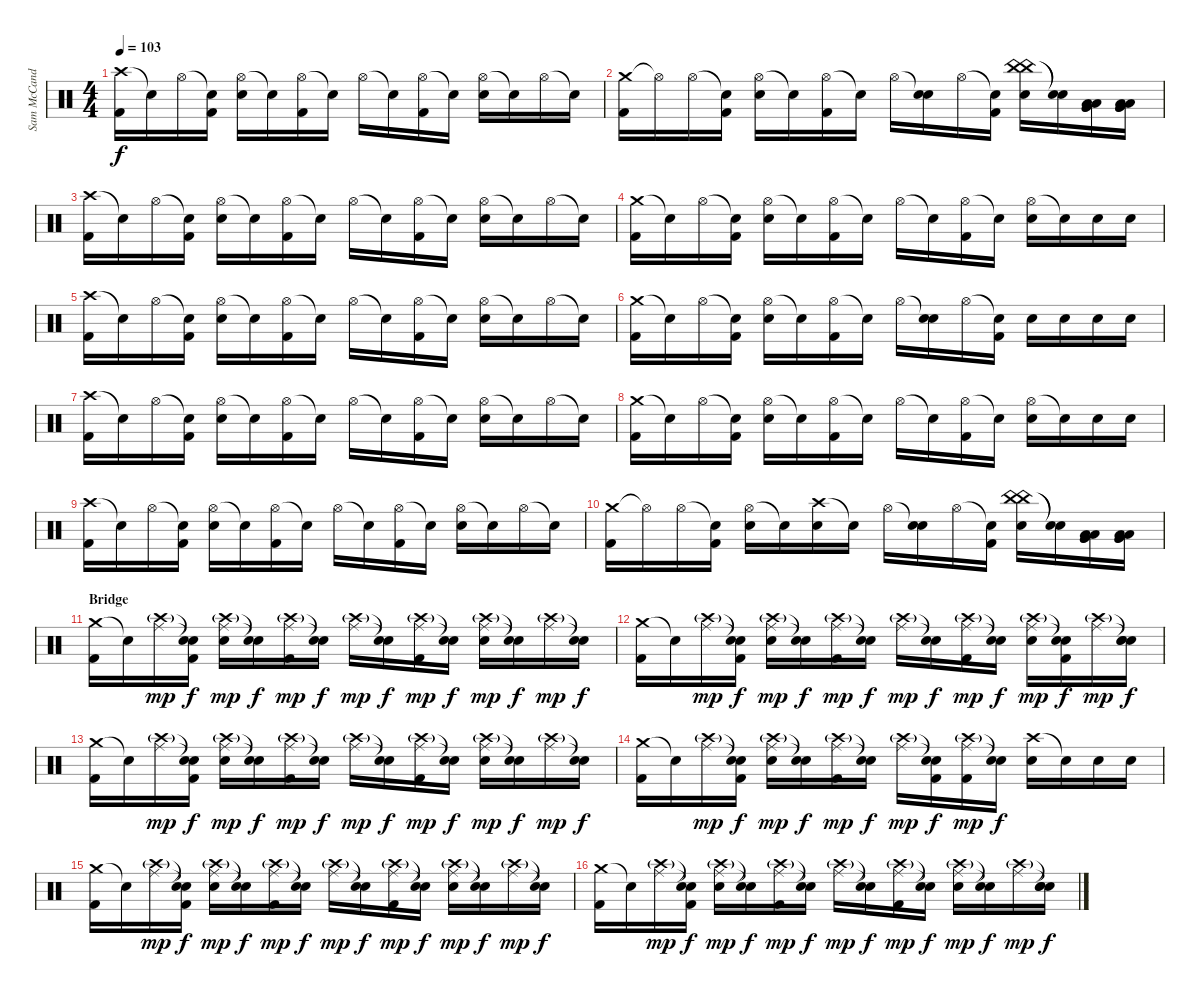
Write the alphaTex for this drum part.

\track ("Sam McCandless (Drums)" "Sam McCand") {instrument percussion}
\staff {score}
\articulation defaults
\ts (4 4)
\tempo 103
\clef neutral
\ks c
("Crash high (hit)" "Kick (hit) 2").16{dy f} "Snare (hit)"{t}.16 "Hi-Hat (open)".16 ("Snare (hit)"{t} "Kick (hit) 2").16 ("Hi-Hat (open)" "Electric Snare (hit)").16 "Snare (hit)"{t}.16 ("Hi-Hat (open)" "Kick (hit) 2").16 "Snare (hit)"{t}.16 "Hi-Hat (open)".16 "Snare (hit)"{t}.16 ("Hi-Hat (open)" "Kick (hit) 2").16 "Snare (hit)"{t}.16 ("Hi-Hat (open)" "Electric Snare (hit)").16 "Snare (hit)"{t}.16 "Hi-Hat (open)".16 "Snare (hit)"{t}.16 |
("Crash medium (hit)" "Kick (hit) 2").16 "Hi-Hat (open)"{t}.16 "Hi-Hat (open)".16 ("Snare (hit)"{t} "Kick (hit) 2").16 ("Hi-Hat (open)" "Electric Snare (hit)").16 "Snare (hit)"{t}.16 ("Hi-Hat (open)" "Kick (hit) 2").16 "Snare (hit)"{t}.16 "Hi-Hat (open)".16 ("Snare (hit)"{t} "Electric Snare (hit)").16 "Hi-Hat (open)".16 ("Snare (hit)"{t} "Kick (hit) 2").16 ("China (hit)" "China (hit)" "Electric Snare (hit)").16 ("Snare (hit)"{t} "Snare (hit)"{t}).16 ("Low Tom (hit)" "Low Tom (hit)" "Very Low Tom (hit)" "Very Low Tom (hit)").16 ("Low Tom (hit)" "Low Tom (hit)" "Very Low Tom (hit)" "Very Low Tom (hit)").16 |
("Crash high (hit)" "Kick (hit) 2").16 "Snare (hit)"{t}.16 "Hi-Hat (open)".16 ("Snare (hit)"{t} "Kick (hit) 2").16 ("Hi-Hat (open)" "Electric Snare (hit)").16 "Snare (hit)"{t}.16 ("Hi-Hat (open)" "Kick (hit) 2").16 "Snare (hit)"{t}.16 "Hi-Hat (open)".16 "Snare (hit)"{t}.16 ("Hi-Hat (open)" "Kick (hit) 2").16 "Snare (hit)"{t}.16 ("Hi-Hat (open)" "Electric Snare (hit)").16 "Snare (hit)"{t}.16 "Hi-Hat (open)".16 "Snare (hit)"{t}.16 |
("Crash medium (hit)" "Kick (hit) 2").16 "Snare (hit)"{t}.16 "Hi-Hat (open)".16 ("Snare (hit)"{t} "Kick (hit) 2").16 ("Hi-Hat (open)" "Electric Snare (hit)").16 "Snare (hit)"{t}.16 ("Hi-Hat (open)" "Kick (hit) 2").16 "Snare (hit)"{t}.16 "Hi-Hat (open)".16 "Snare (hit)"{t}.16 ("Hi-Hat (open)" "Kick (hit) 2").16 "Snare (hit)"{t}.16 ("Hi-Hat (open)" "Electric Snare (hit)").16 "Snare (hit)"{t}.16 "Electric Snare (hit)".16 "Electric Snare (hit)".16 |
("Crash high (hit)" "Kick (hit) 2").16 "Snare (hit)"{t}.16 "Hi-Hat (open)".16 ("Snare (hit)"{t} "Kick (hit) 2").16 ("Hi-Hat (open)" "Electric Snare (hit)").16 "Snare (hit)"{t}.16 ("Hi-Hat (open)" "Kick (hit) 2").16 "Snare (hit)"{t}.16 "Hi-Hat (open)".16 "Snare (hit)"{t}.16 ("Hi-Hat (open)" "Kick (hit) 2").16 "Snare (hit)"{t}.16 ("Hi-Hat (open)" "Electric Snare (hit)").16 "Snare (hit)"{t}.16 "Hi-Hat (open)".16 "Snare (hit)"{t}.16 |
("Crash medium (hit)" "Kick (hit) 2").16 "Snare (hit)"{t}.16 "Hi-Hat (open)".16 ("Snare (hit)"{t} "Kick (hit) 2").16 ("Hi-Hat (open)" "Electric Snare (hit)").16 "Snare (hit)"{t}.16 ("Hi-Hat (open)" "Kick (hit) 2").16 "Snare (hit)"{t}.16 "Hi-Hat (open)".16 ("Snare (hit)"{t} "Electric Snare (hit)").16 "Hi-Hat (open)".16 ("Snare (hit)"{t} "Kick (hit) 2").16 "Electric Snare (hit)".16 "Electric Snare (hit)".16 "Electric Snare (hit)".16 "Electric Snare (hit)".16 |
("Crash high (hit)" "Kick (hit) 2").16 "Snare (hit)"{t}.16 "Hi-Hat (open)".16 ("Snare (hit)"{t} "Kick (hit) 2").16 ("Hi-Hat (open)" "Electric Snare (hit)").16 "Snare (hit)"{t}.16 ("Hi-Hat (open)" "Kick (hit) 2").16 "Snare (hit)"{t}.16 "Hi-Hat (open)".16 "Snare (hit)"{t}.16 ("Hi-Hat (open)" "Kick (hit) 2").16 "Snare (hit)"{t}.16 ("Hi-Hat (open)" "Electric Snare (hit)").16 "Snare (hit)"{t}.16 "Hi-Hat (open)".16 "Snare (hit)"{t}.16 |
("Crash medium (hit)" "Kick (hit) 2").16 "Snare (hit)"{t}.16 "Hi-Hat (open)".16 ("Snare (hit)"{t} "Kick (hit) 2").16 ("Hi-Hat (open)" "Electric Snare (hit)").16 "Snare (hit)"{t}.16 ("Hi-Hat (open)" "Kick (hit) 2").16 "Snare (hit)"{t}.16 "Hi-Hat (open)".16 "Snare (hit)"{t}.16 ("Hi-Hat (open)" "Kick (hit) 2").16 "Snare (hit)"{t}.16 ("Hi-Hat (open)" "Electric Snare (hit)").16 "Snare (hit)"{t}.16 "Electric Snare (hit)".16 "Electric Snare (hit)".16 |
("Crash high (hit)" "Kick (hit) 2").16 "Snare (hit)"{t}.16 "Hi-Hat (open)".16 ("Snare (hit)"{t} "Kick (hit) 2").16 ("Hi-Hat (open)" "Electric Snare (hit)").16 "Snare (hit)"{t}.16 ("Hi-Hat (open)" "Kick (hit) 2").16 "Snare (hit)"{t}.16 "Hi-Hat (open)".16 "Snare (hit)"{t}.16 ("Hi-Hat (open)" "Kick (hit) 2").16 "Snare (hit)"{t}.16 ("Hi-Hat (open)" "Electric Snare (hit)").16 "Snare (hit)"{t}.16 "Hi-Hat (open)".16 "Snare (hit)"{t}.16 |
("Crash medium (hit)" "Kick (hit) 2").16 "Hi-Hat (open)"{t}.16 "Hi-Hat (open)".16 ("Snare (hit)"{t} "Kick (hit) 2").16 ("Hi-Hat (open)" "Electric Snare (hit)").16 "Snare (hit)"{t}.16 ("Crash high (hit)" "Electric Snare (hit)").16 "Snare (hit)"{t}.16 "Hi-Hat (open)".16 ("Snare (hit)"{t} "Electric Snare (hit)").16 "Hi-Hat (open)".16 ("Snare (hit)"{t} "Kick (hit) 2").16 ("China (hit)" "China (hit)" "Electric Snare (hit)").16 ("Snare (hit)"{t} "Snare (hit)"{t}).16 ("Low Tom (hit)" "Low Tom (hit)" "Very Low Tom (hit)" "Very Low Tom (hit)").16 ("Low Tom (hit)" "Low Tom (hit)" "Very Low Tom (hit)" "Very Low Tom (hit)").16 |
\section ("" "Bridge")
("Crash medium (hit)" "Kick (hit) 2").16 "Snare (hit)"{t}.16 ("Crash high (hit)"{g} "Ride (middle)").16{dy mp} ("Snare (hit)"{t} "Snare (hit)"{t} "Kick (hit) 2").16{dy f} ("Crash high (hit)"{g} "Ride (middle)" "Electric Snare (hit)").16{dy mp} ("Snare (hit)"{t} "Snare (hit)"{t}).16{dy f} ("Crash high (hit)"{g} "Ride (middle)" "Kick (hit) 2").16{dy mp} ("Snare (hit)"{t} "Snare (hit)"{t}).16{dy f} ("Crash high (hit)"{g} "Ride (middle)").16{dy mp} ("Snare (hit)"{t} "Snare (hit)"{t}).16{dy f} ("Crash high (hit)"{g} "Ride (middle)" "Kick (hit) 2").16{dy mp} ("Snare (hit)"{t} "Snare (hit)"{t}).16{dy f} ("Crash high (hit)"{g} "Ride (middle)" "Electric Snare (hit)").16{dy mp} ("Snare (hit)"{t} "Snare (hit)"{t}).16{dy f} ("Crash high (hit)"{g} "Ride (middle)").16{dy mp} ("Snare (hit)"{t} "Snare (hit)"{t}).16{dy f} |
("Crash medium (hit)" "Kick (hit) 2").16 "Snare (hit)"{t}.16 ("Crash high (hit)"{g} "Ride (middle)").16{dy mp} ("Snare (hit)"{t} "Snare (hit)"{t} "Kick (hit) 2").16{dy f} ("Crash high (hit)"{g} "Ride (middle)" "Electric Snare (hit)").16{dy mp} ("Snare (hit)"{t} "Snare (hit)"{t}).16{dy f} ("Crash high (hit)"{g} "Ride (middle)" "Kick (hit) 2").16{dy mp} ("Snare (hit)"{t} "Snare (hit)"{t}).16{dy f} ("Crash high (hit)"{g} "Ride (middle)").16{dy mp} ("Snare (hit)"{t} "Snare (hit)"{t}).16{dy f} ("Crash high (hit)"{g} "Ride (middle)" "Kick (hit) 2").16{dy mp} ("Snare (hit)"{t} "Snare (hit)"{t}).16{dy f} ("Crash high (hit)"{g} "Ride (middle)" "Electric Snare (hit)").16{dy mp} ("Snare (hit)"{t} "Snare (hit)"{t} "Kick (hit) 2").16{dy f} ("Crash high (hit)"{g} "Ride (middle)").16{dy mp} ("Snare (hit)"{t} "Snare (hit)"{t} "Electric Snare (hit)").16{dy f} |
("Crash medium (hit)" "Kick (hit) 2").16 "Snare (hit)"{t}.16 ("Crash high (hit)"{g} "Ride (middle)").16{dy mp} ("Snare (hit)"{t} "Snare (hit)"{t} "Kick (hit) 2").16{dy f} ("Crash high (hit)"{g} "Ride (middle)" "Electric Snare (hit)").16{dy mp} ("Snare (hit)"{t} "Snare (hit)"{t}).16{dy f} ("Crash high (hit)"{g} "Ride (middle)" "Kick (hit) 2").16{dy mp} ("Snare (hit)"{t} "Snare (hit)"{t}).16{dy f} ("Crash high (hit)"{g} "Ride (middle)").16{dy mp} ("Snare (hit)"{t} "Snare (hit)"{t}).16{dy f} ("Crash high (hit)"{g} "Ride (middle)" "Kick (hit) 2").16{dy mp} ("Snare (hit)"{t} "Snare (hit)"{t}).16{dy f} ("Crash high (hit)"{g} "Ride (middle)" "Electric Snare (hit)").16{dy mp} ("Snare (hit)"{t} "Snare (hit)"{t}).16{dy f} ("Crash high (hit)"{g} "Ride (middle)").16{dy mp} ("Snare (hit)"{t} "Snare (hit)"{t}).16{dy f} |
("Crash medium (hit)" "Kick (hit) 2").16 "Snare (hit)"{t}.16 ("Crash high (hit)"{g} "Ride (middle)").16{dy mp} ("Snare (hit)"{t} "Snare (hit)"{t} "Kick (hit) 2").16{dy f} ("Crash high (hit)"{g} "Ride (middle)" "Electric Snare (hit)").16{dy mp} ("Snare (hit)"{t} "Snare (hit)"{t}).16{dy f} ("Crash high (hit)"{g} "Ride (middle)" "Kick (hit) 2").16{dy mp} ("Snare (hit)"{t} "Snare (hit)"{t}).16{dy f} ("Crash high (hit)"{g} "Ride (middle)").16{dy mp} ("Snare (hit)"{t} "Snare (hit)"{t} "Kick (hit) 2").16{dy f} ("Crash high (hit)"{g} "Ride (middle)" "Kick (hit) 2").16{dy mp} ("Snare (hit)"{t} "Snare (hit)"{t}).16{dy f} ("Crash high (hit)" "Electric Snare (hit)").16 "Snare (hit)"{t}.16 "Electric Snare (hit)".16 "Electric Snare (hit)".16 |
("Crash medium (hit)" "Kick (hit) 2").16 "Snare (hit)"{t}.16 ("Crash high (hit)"{g} "Ride (middle)").16{dy mp} ("Snare (hit)"{t} "Snare (hit)"{t} "Kick (hit) 2").16{dy f} ("Crash high (hit)"{g} "Ride (middle)" "Electric Snare (hit)").16{dy mp} ("Snare (hit)"{t} "Snare (hit)"{t}).16{dy f} ("Crash high (hit)"{g} "Ride (middle)" "Kick (hit) 2").16{dy mp} ("Snare (hit)"{t} "Snare (hit)"{t}).16{dy f} ("Crash high (hit)"{g} "Ride (middle)").16{dy mp} ("Snare (hit)"{t} "Snare (hit)"{t}).16{dy f} ("Crash high (hit)"{g} "Ride (middle)" "Kick (hit) 2").16{dy mp} ("Snare (hit)"{t} "Snare (hit)"{t}).16{dy f} ("Crash high (hit)"{g} "Ride (middle)" "Electric Snare (hit)").16{dy mp} ("Snare (hit)"{t} "Snare (hit)"{t}).16{dy f} ("Crash high (hit)"{g} "Ride (middle)").16{dy mp} ("Snare (hit)"{t} "Snare (hit)"{t}).16{dy f} |
("Crash medium (hit)" "Kick (hit) 2").16 "Snare (hit)"{t}.16 ("Crash high (hit)"{g} "Ride (middle)").16{dy mp} ("Snare (hit)"{t} "Snare (hit)"{t} "Kick (hit) 2").16{dy f} ("Crash high (hit)"{g} "Ride (middle)" "Electric Snare (hit)").16{dy mp} ("Snare (hit)"{t} "Snare (hit)"{t}).16{dy f} ("Crash high (hit)"{g} "Ride (middle)" "Kick (hit) 2").16{dy mp} ("Snare (hit)"{t} "Snare (hit)"{t}).16{dy f} ("Crash high (hit)"{g} "Ride (middle)").16{dy mp} ("Snare (hit)"{t} "Snare (hit)"{t}).16{dy f} ("Crash high (hit)"{g} "Ride (middle)" "Kick (hit) 2").16{dy mp} ("Snare (hit)"{t} "Snare (hit)"{t}).16{dy f} ("Crash high (hit)"{g} "Ride (middle)" "Electric Snare (hit)").16{dy mp} ("Snare (hit)"{t} "Snare (hit)"{t}).16{dy f} ("Crash high (hit)"{g} "Ride (middle)").16{dy mp} ("Snare (hit)"{t} "Snare (hit)"{t} "Electric Snare (hit)").16{dy f}
